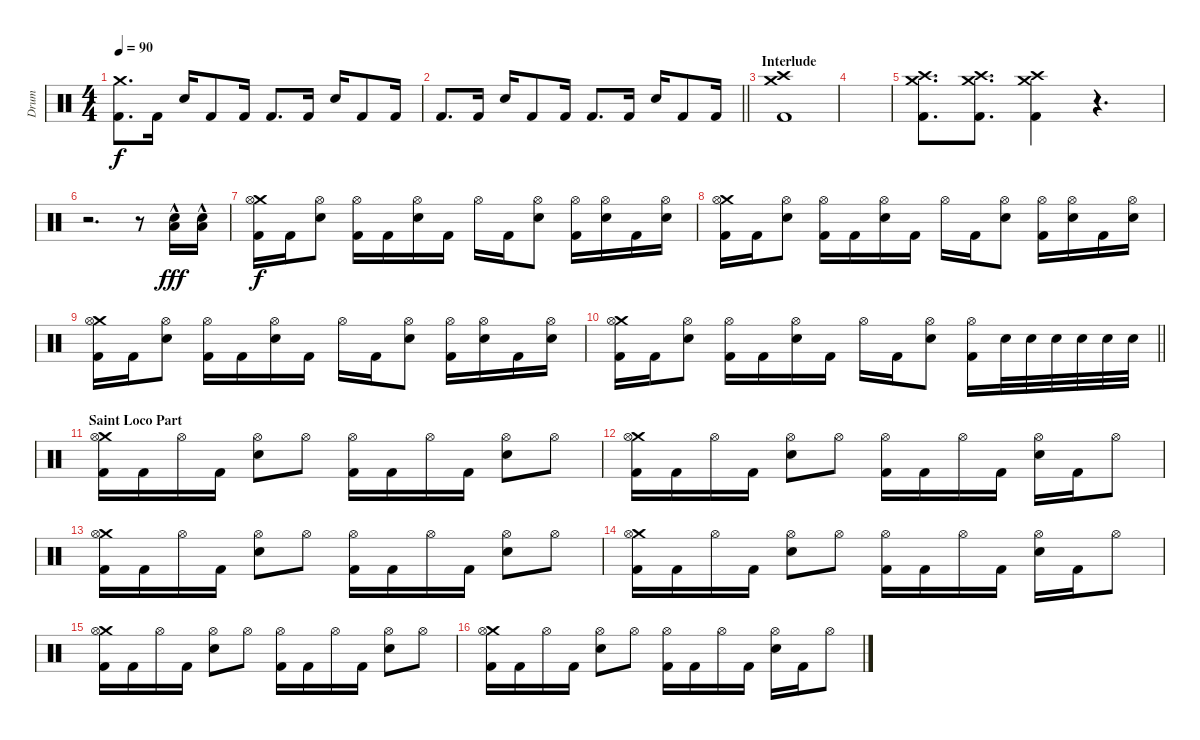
\track ("Drum" "Drum") {instrument percussion}
\staff {score}
\articulation defaults
\ts (4 4)
\tempo 90
\clef neutral
\ks c
("Crash medium (hit)" "Kick (hit) 2").8{d dy f} "Kick (hit) 2".16 "Electric Snare (hit)".16 "Kick (hit) 2".8 "Kick (hit) 2".16 "Kick (hit) 2".8{d} "Kick (hit) 2".16 "Electric Snare (hit)".16 "Kick (hit) 2".8 "Kick (hit) 2".16 |
\barLineRight lightlight "Kick (hit) 2".8{d} "Kick (hit) 2".16 "Electric Snare (hit)".16 "Kick (hit) 2".8 "Kick (hit) 2".16 "Kick (hit) 2".8{d} "Kick (hit) 2".16 "Electric Snare (hit)".16 "Kick (hit) 2".8 "Kick (hit) 2".16
|
\section ("" "Interlude")
("Crash medium (hit)" "Crash high (hit)" "Kick (hit) 2").1 |
|
("Crash medium (hit)" "Crash high (hit)" "Kick (hit) 2").8{d} ("Crash medium (hit)" "Crash high (hit)" "Kick (hit) 2").8{d} ("Crash medium (hit)" "Crash high (hit)" "Kick (hit) 2").4 r.4{d} |
r.2{d} r.8 ("Electric Snare (hit)"{hac} "Low Floor Tom (hit)"{hac}).16{dy fff} ("Electric Snare (hit)"{hac} "Low Floor Tom (hit)"{hac}).16 |
("Crash medium (hit)" "Hi-Hat (open)" "Kick (hit) 2").16{dy f} "Kick (hit) 2".16 ("Hi-Hat (open)" "Electric Snare (hit)").8 ("Hi-Hat (open)" "Kick (hit) 2").16 "Kick (hit) 2".16 ("Hi-Hat (open)" "Electric Snare (hit)").16 "Kick (hit) 2".16 "Hi-Hat (open)".16 "Kick (hit) 2".16 ("Hi-Hat (open)" "Electric Snare (hit)").8 ("Hi-Hat (open)" "Kick (hit) 2").16 ("Hi-Hat (open)" "Electric Snare (hit)").16 "Kick (hit) 2".16 ("Hi-Hat (open)" "Electric Snare (hit)").16 |
("Crash medium (hit)" "Hi-Hat (open)" "Kick (hit) 2").16 "Kick (hit) 2".16 ("Hi-Hat (open)" "Electric Snare (hit)").8 ("Hi-Hat (open)" "Kick (hit) 2").16 "Kick (hit) 2".16 ("Hi-Hat (open)" "Electric Snare (hit)").16 "Kick (hit) 2".16 "Hi-Hat (open)".16 "Kick (hit) 2".16 ("Hi-Hat (open)" "Electric Snare (hit)").8 ("Hi-Hat (open)" "Kick (hit) 2").16 ("Hi-Hat (open)" "Electric Snare (hit)").16 "Kick (hit) 2".16 ("Hi-Hat (open)" "Electric Snare (hit)").16 |
("Crash medium (hit)" "Hi-Hat (open)" "Kick (hit) 2").16 "Kick (hit) 2".16 ("Hi-Hat (open)" "Electric Snare (hit)").8 ("Hi-Hat (open)" "Kick (hit) 2").16 "Kick (hit) 2".16 ("Hi-Hat (open)" "Electric Snare (hit)").16 "Kick (hit) 2".16 "Hi-Hat (open)".16 "Kick (hit) 2".16 ("Hi-Hat (open)" "Electric Snare (hit)").8 ("Hi-Hat (open)" "Kick (hit) 2").16 ("Hi-Hat (open)" "Electric Snare (hit)").16 "Kick (hit) 2".16 ("Hi-Hat (open)" "Electric Snare (hit)").16 |
\barLineRight lightlight
("Crash medium (hit)" "Hi-Hat (open)" "Kick (hit) 2").16 "Kick (hit) 2".16 ("Hi-Hat (open)" "Electric Snare (hit)").8 ("Hi-Hat (open)" "Kick (hit) 2").16 "Kick (hit) 2".16 ("Hi-Hat (open)" "Electric Snare (hit)").16 "Kick (hit) 2".16 "Hi-Hat (open)".16 "Kick (hit) 2".16 ("Hi-Hat (open)" "Electric Snare (hit)").8 ("Hi-Hat (open)" "Kick (hit) 2").16 "Electric Snare (hit)".32 "Electric Snare (hit)".32 "Electric Snare (hit)".32 "Electric Snare (hit)".32 "Electric Snare (hit)".32 "Electric Snare (hit)".32 |
\section ("" "Saint Loco Part")
("Crash medium (hit)" "Hi-Hat (open)" "Kick (hit) 2").16 "Kick (hit) 2".16 "Hi-Hat (open)".16 "Kick (hit) 2".16 ("Hi-Hat (open)" "Electric Snare (hit)").8 "Hi-Hat (open)".8 ("Hi-Hat (open)" "Kick (hit) 2").16 "Kick (hit) 2".16 "Hi-Hat (open)".16 "Kick (hit) 2".16 ("Hi-Hat (open)" "Electric Snare (hit)").8 "Hi-Hat (open)".8 |
("Crash medium (hit)" "Hi-Hat (open)" "Kick (hit) 2").16 "Kick (hit) 2".16 "Hi-Hat (open)".16 "Kick (hit) 2".16 ("Hi-Hat (open)" "Electric Snare (hit)").8 "Hi-Hat (open)".8 ("Hi-Hat (open)" "Kick (hit) 2").16 "Kick (hit) 2".16 "Hi-Hat (open)".16 "Kick (hit) 2".16 ("Hi-Hat (open)" "Electric Snare (hit)").16 "Kick (hit) 2".16 "Hi-Hat (open)".8 |
("Crash medium (hit)" "Hi-Hat (open)" "Kick (hit) 2").16 "Kick (hit) 2".16 "Hi-Hat (open)".16 "Kick (hit) 2".16 ("Hi-Hat (open)" "Electric Snare (hit)").8 "Hi-Hat (open)".8 ("Hi-Hat (open)" "Kick (hit) 2").16 "Kick (hit) 2".16 "Hi-Hat (open)".16 "Kick (hit) 2".16 ("Hi-Hat (open)" "Electric Snare (hit)").8 "Hi-Hat (open)".8 |
("Crash medium (hit)" "Hi-Hat (open)" "Kick (hit) 2").16 "Kick (hit) 2".16 "Hi-Hat (open)".16 "Kick (hit) 2".16 ("Hi-Hat (open)" "Electric Snare (hit)").8 "Hi-Hat (open)".8 ("Hi-Hat (open)" "Kick (hit) 2").16 "Kick (hit) 2".16 "Hi-Hat (open)".16 "Kick (hit) 2".16 ("Hi-Hat (open)" "Electric Snare (hit)").16 "Kick (hit) 2".16 "Hi-Hat (open)".8 |
("Crash medium (hit)" "Hi-Hat (open)" "Kick (hit) 2").16 "Kick (hit) 2".16 "Hi-Hat (open)".16 "Kick (hit) 2".16 ("Hi-Hat (open)" "Electric Snare (hit)").8 "Hi-Hat (open)".8 ("Hi-Hat (open)" "Kick (hit) 2").16 "Kick (hit) 2".16 "Hi-Hat (open)".16 "Kick (hit) 2".16 ("Hi-Hat (open)" "Electric Snare (hit)").8 "Hi-Hat (open)".8 |
("Crash medium (hit)" "Hi-Hat (open)" "Kick (hit) 2").16 "Kick (hit) 2".16 "Hi-Hat (open)".16 "Kick (hit) 2".16 ("Hi-Hat (open)" "Electric Snare (hit)").8 "Hi-Hat (open)".8 ("Hi-Hat (open)" "Kick (hit) 2").16 "Kick (hit) 2".16 "Hi-Hat (open)".16 "Kick (hit) 2".16 ("Hi-Hat (open)" "Electric Snare (hit)").16 "Kick (hit) 2".16 "Hi-Hat (open)".8
